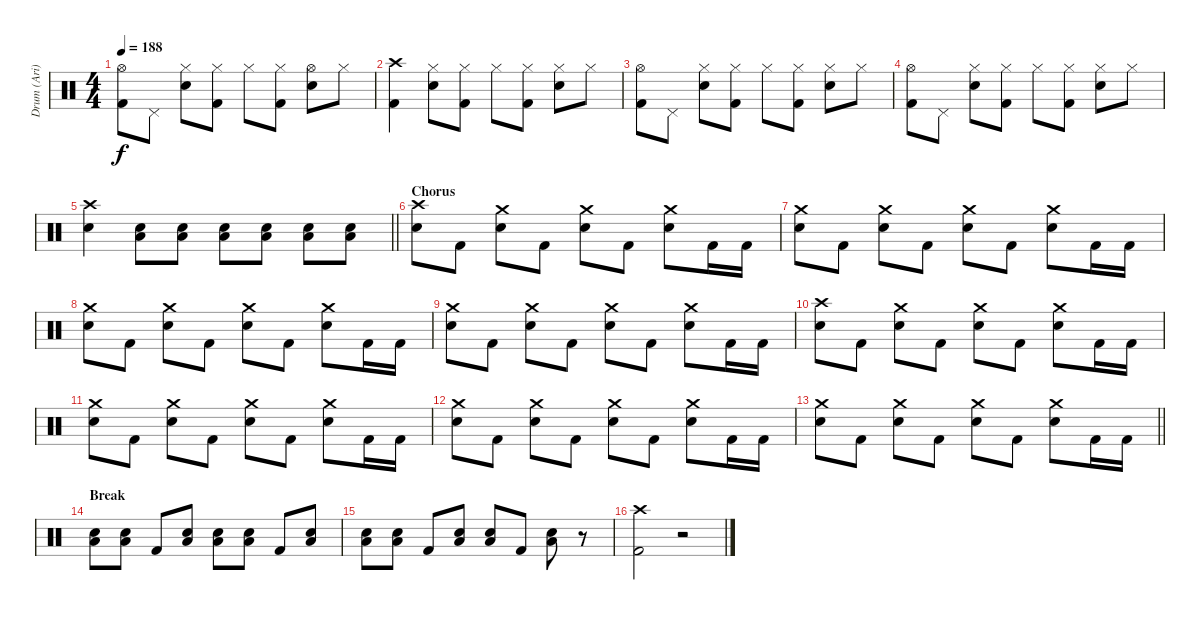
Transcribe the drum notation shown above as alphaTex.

\track ("Drum (Ari)" "Drum (Ari)") {instrument percussion}
\staff {score}
\articulation defaults
\ts (4 4)
\tempo 188
\clef neutral
\ks c
("Hi-Hat (open)" "Kick (hit) 2").8{dy f} "Pedal Hi-Hat (hit)".8 ("Hi-Hat (closed)" "Electric Snare (hit)").8 ("Hi-Hat (closed)" "Kick (hit) 2").8 "Hi-Hat (closed)".8 ("Hi-Hat (closed)" "Kick (hit) 2").8 ("Hi-Hat (open)" "Electric Snare (hit)").8 "Hi-Hat (closed)".8 |
("Crash high (hit)" "Kick (hit) 2").4 ("Hi-Hat (closed)" "Electric Snare (hit)").8 ("Hi-Hat (closed)" "Kick (hit) 2").8 "Hi-Hat (closed)".8 ("Hi-Hat (closed)" "Kick (hit) 2").8 ("Hi-Hat (closed)" "Electric Snare (hit)").8 "Hi-Hat (closed)".8 |
("Hi-Hat (open)" "Kick (hit) 2").8 "Pedal Hi-Hat (hit)".8 ("Hi-Hat (closed)" "Electric Snare (hit)").8 ("Hi-Hat (closed)" "Kick (hit) 2").8 "Hi-Hat (closed)".8 ("Hi-Hat (closed)" "Kick (hit) 2").8 ("Hi-Hat (closed)" "Electric Snare (hit)").8 "Hi-Hat (closed)".8 |
("Hi-Hat (open)" "Kick (hit) 2").8 "Pedal Hi-Hat (hit)".8 ("Hi-Hat (closed)" "Electric Snare (hit)").8 ("Hi-Hat (closed)" "Kick (hit) 2").8 "Hi-Hat (closed)".8 ("Hi-Hat (closed)" "Kick (hit) 2").8 ("Hi-Hat (closed)" "Electric Snare (hit)").8 "Hi-Hat (closed)".8 |
\barLineRight lightlight
("Crash high (hit)" "Electric Snare (hit)").4 ("Electric Snare (hit)" "Low Floor Tom (hit)").8 ("Electric Snare (hit)" "Low Floor Tom (hit)").8 ("Electric Snare (hit)" "Low Floor Tom (hit)").8 ("Electric Snare (hit)" "Low Floor Tom (hit)").8 ("Electric Snare (hit)" "Low Floor Tom (hit)").8 ("Electric Snare (hit)" "Low Floor Tom (hit)").8 |
\section ("" "Chorus")
("Crash high (hit)" "Electric Snare (hit)").8 "Kick (hit) 2".8 ("Crash medium (hit)" "Electric Snare (hit)").8 "Kick (hit) 2".8 ("Crash medium (hit)" "Electric Snare (hit)").8 "Kick (hit) 2".8 ("Crash medium (hit)" "Electric Snare (hit)").8 "Kick (hit) 2".16 "Kick (hit) 2".16 |
("Crash medium (hit)" "Electric Snare (hit)").8 "Kick (hit) 2".8 ("Crash medium (hit)" "Electric Snare (hit)").8 "Kick (hit) 2".8 ("Crash medium (hit)" "Electric Snare (hit)").8 "Kick (hit) 2".8 ("Crash medium (hit)" "Electric Snare (hit)").8 "Kick (hit) 2".16 "Kick (hit) 2".16 |
("Crash medium (hit)" "Electric Snare (hit)").8 "Kick (hit) 2".8 ("Crash medium (hit)" "Electric Snare (hit)").8 "Kick (hit) 2".8 ("Crash medium (hit)" "Electric Snare (hit)").8 "Kick (hit) 2".8 ("Crash medium (hit)" "Electric Snare (hit)").8 "Kick (hit) 2".16 "Kick (hit) 2".16 |
("Crash medium (hit)" "Electric Snare (hit)").8 "Kick (hit) 2".8 ("Crash medium (hit)" "Electric Snare (hit)").8 "Kick (hit) 2".8 ("Crash medium (hit)" "Electric Snare (hit)").8 "Kick (hit) 2".8 ("Crash medium (hit)" "Electric Snare (hit)").8 "Kick (hit) 2".16 "Kick (hit) 2".16 |
("Crash high (hit)" "Electric Snare (hit)").8 "Kick (hit) 2".8 ("Crash medium (hit)" "Electric Snare (hit)").8 "Kick (hit) 2".8 ("Crash medium (hit)" "Electric Snare (hit)").8 "Kick (hit) 2".8 ("Crash medium (hit)" "Electric Snare (hit)").8 "Kick (hit) 2".16 "Kick (hit) 2".16 |
("Crash medium (hit)" "Electric Snare (hit)").8 "Kick (hit) 2".8 ("Crash medium (hit)" "Electric Snare (hit)").8 "Kick (hit) 2".8 ("Crash medium (hit)" "Electric Snare (hit)").8 "Kick (hit) 2".8 ("Crash medium (hit)" "Electric Snare (hit)").8 "Kick (hit) 2".16 "Kick (hit) 2".16 |
("Crash medium (hit)" "Electric Snare (hit)").8 "Kick (hit) 2".8 ("Crash medium (hit)" "Electric Snare (hit)").8 "Kick (hit) 2".8 ("Crash medium (hit)" "Electric Snare (hit)").8 "Kick (hit) 2".8 ("Crash medium (hit)" "Electric Snare (hit)").8 "Kick (hit) 2".16 "Kick (hit) 2".16 |
\barLineRight lightlight
("Crash medium (hit)" "Electric Snare (hit)").8 "Kick (hit) 2".8 ("Crash medium (hit)" "Electric Snare (hit)").8 "Kick (hit) 2".8 ("Crash medium (hit)" "Electric Snare (hit)").8 "Kick (hit) 2".8 ("Crash medium (hit)" "Electric Snare (hit)").8 "Kick (hit) 2".16 "Kick (hit) 2".16 |
\section ("" "Break")
("Electric Snare (hit)" "Low Floor Tom (hit)").8 ("Electric Snare (hit)" "Low Floor Tom (hit)").8 "Kick (hit) 2".8 ("Electric Snare (hit)" "Low Floor Tom (hit)").8 ("Electric Snare (hit)" "Low Floor Tom (hit)").8 ("Electric Snare (hit)" "Low Floor Tom (hit)").8 "Kick (hit) 2".8 ("Electric Snare (hit)" "Low Floor Tom (hit)").8 |
("Electric Snare (hit)" "Low Floor Tom (hit)").8 ("Electric Snare (hit)" "Low Floor Tom (hit)").8 "Kick (hit) 2".8 ("Electric Snare (hit)" "Low Floor Tom (hit)").8 ("Electric Snare (hit)" "Low Floor Tom (hit)").8 "Kick (hit) 2".8 ("Electric Snare (hit)" "Low Floor Tom (hit)").8 r.8 |
("Crash high (hit)" "Kick (hit) 2").2 r.2
